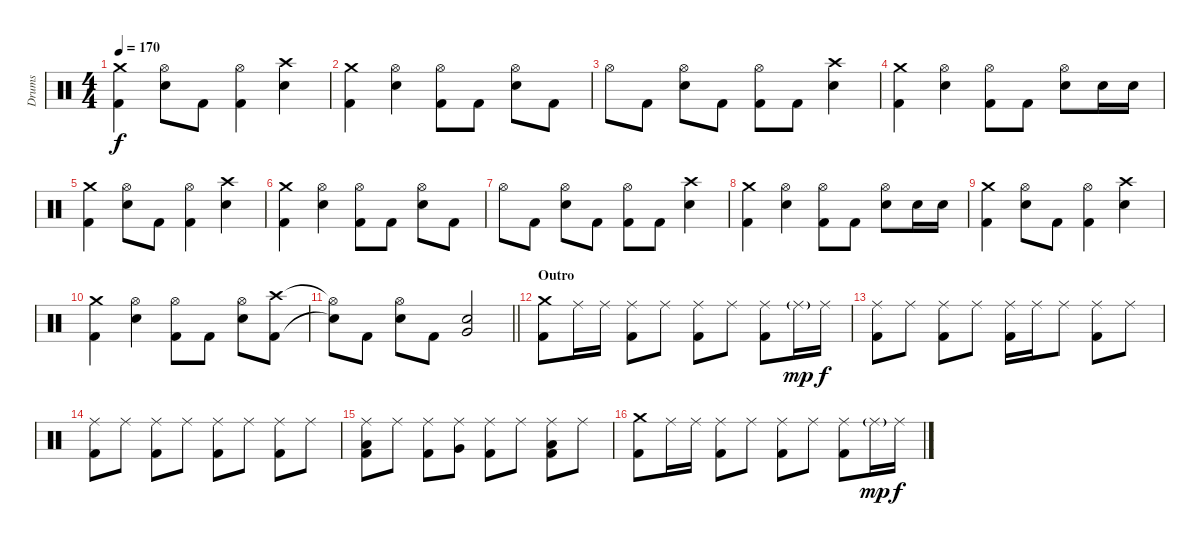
\track ("Drums" "Drums") {instrument percussion}
\staff {score}
\articulation defaults
\ts (4 4)
\tempo 170
\clef neutral
\ks c
("Crash medium (hit)" "Kick (hit) 2").4{dy f} ("Hi-Hat (open)" "Electric Snare (hit)").8 "Kick (hit) 2".8 ("Hi-Hat (open)" "Kick (hit) 2").4 ("Crash high (hit)" "Electric Snare (hit)").4 |
("Crash medium (hit)" "Kick (hit) 2").4 ("Hi-Hat (open)" "Electric Snare (hit)").4 ("Hi-Hat (open)" "Kick (hit) 2").8 "Kick (hit) 2".8 ("Hi-Hat (open)" "Electric Snare (hit)").8 "Kick (hit) 2".8 |
"Hi-Hat (open)".8 "Kick (hit) 2".8 ("Hi-Hat (open)" "Electric Snare (hit)").8 "Kick (hit) 2".8 ("Hi-Hat (open)" "Kick (hit) 2").8 "Kick (hit) 2".8 ("Crash high (hit)" "Electric Snare (hit)").4 |
("Crash medium (hit)" "Kick (hit) 2").4 ("Hi-Hat (open)" "Electric Snare (hit)").4 ("Hi-Hat (open)" "Kick (hit) 2").8 "Kick (hit) 2".8 ("Hi-Hat (open)" "Electric Snare (hit)").8 "Electric Snare (hit)".16 "Electric Snare (hit)".16 |
("Crash medium (hit)" "Kick (hit) 2").4 ("Hi-Hat (open)" "Electric Snare (hit)").8 "Kick (hit) 2".8 ("Hi-Hat (open)" "Kick (hit) 2").4 ("Crash high (hit)" "Electric Snare (hit)").4 |
("Crash medium (hit)" "Kick (hit) 2").4 ("Hi-Hat (open)" "Electric Snare (hit)").4 ("Hi-Hat (open)" "Kick (hit) 2").8 "Kick (hit) 2".8 ("Hi-Hat (open)" "Electric Snare (hit)").8 "Kick (hit) 2".8 |
"Hi-Hat (open)".8 "Kick (hit) 2".8 ("Hi-Hat (open)" "Electric Snare (hit)").8 "Kick (hit) 2".8 ("Hi-Hat (open)" "Kick (hit) 2").8 "Kick (hit) 2".8 ("Crash high (hit)" "Electric Snare (hit)").4 |
("Crash medium (hit)" "Kick (hit) 2").4 ("Hi-Hat (open)" "Electric Snare (hit)").4 ("Hi-Hat (open)" "Kick (hit) 2").8 "Kick (hit) 2".8 ("Hi-Hat (open)" "Electric Snare (hit)").8 "Electric Snare (hit)".16 "Electric Snare (hit)".16 |
("Crash medium (hit)" "Kick (hit) 2").4 ("Hi-Hat (open)" "Electric Snare (hit)").8 "Kick (hit) 2".8 ("Hi-Hat (open)" "Kick (hit) 2").4 ("Crash high (hit)" "Electric Snare (hit)").4 |
("Crash medium (hit)" "Kick (hit) 2").4 ("Hi-Hat (open)" "Electric Snare (hit)").4 ("Hi-Hat (open)" "Kick (hit) 2").8 "Kick (hit) 2".8 ("Hi-Hat (open)" "Electric Snare (hit)").8 ("Crash high (hit)" "Kick (hit) 2").8 |
\barLineRight lightlight
("Hi-Hat (open)"{t} "Snare (hit)"{t}).8 "Kick (hit) 2".8 ("Hi-Hat (open)" "Electric Snare (hit)").8 "Kick (hit) 2".8 ("Very Low Tom (hit)" "Electric Snare (hit)").2 |
\section ("" "Outro")
("Crash medium (hit)" "Kick (hit) 2").8 "Ride (middle)".16 "Ride (middle)".16 ("Ride (middle)" "Kick (hit) 2").8 "Ride (middle)".8 ("Ride (middle)" "Kick (hit) 2").8 "Ride (middle)".8 ("Ride (middle)" "Kick (hit) 2").8 "Ride (middle)"{g}.16{dy mp} "Ride (middle)".16{dy f} |
("Ride (middle)" "Kick (hit) 2").8 "Ride (middle)".8 ("Ride (middle)" "Kick (hit) 2").8 "Ride (middle)".8 ("Ride (middle)" "Kick (hit) 2").16 "Ride (middle)".16 "Ride (middle)".8 ("Ride (middle)" "Kick (hit) 2").8 "Ride (middle)".8 |
("Ride (middle)" "Kick (hit) 2").8 "Ride (middle)".8 ("Ride (middle)" "Kick (hit) 2").8 "Ride (middle)".8 ("Ride (middle)" "Kick (hit) 2").8 "Ride (middle)".8 ("Ride (middle)" "Kick (hit) 2").8 "Ride (middle)".8 |
("Ride (middle)" "Low Tom (hit)" "Kick (hit) 2").8 "Ride (middle)".8 ("Ride (middle)" "Kick (hit) 2").8 ("Ride (middle)" "Very Low Tom (hit)").8 ("Ride (middle)" "Kick (hit) 2").8 "Ride (middle)".8 ("Ride (middle)" "Low Floor Tom (hit)" "Kick (hit) 2").8 "Ride (middle)".8 |
("Crash medium (hit)" "Kick (hit) 2").8 "Ride (middle)".16 "Ride (middle)".16 ("Ride (middle)" "Kick (hit) 2").8 "Ride (middle)".8 ("Ride (middle)" "Kick (hit) 2").8 "Ride (middle)".8 ("Ride (middle)" "Kick (hit) 2").8 "Ride (middle)"{g}.16{dy mp} "Ride (middle)".16{dy f}
